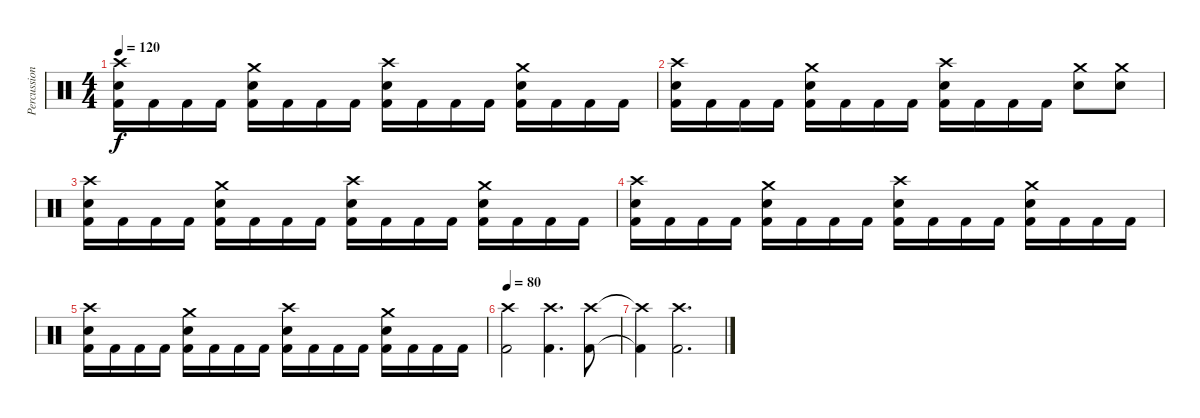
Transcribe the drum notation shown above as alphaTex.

\track ("Percussion" "Percussion") {instrument percussion}
\staff {score}
\articulation defaults
\ts (4 4)
\tempo 120
\clef neutral
\ks c
("Snare (hit) 2" "Kick (hit) 2" "Crash high (hit)").16{dy f} "Kick (hit) 2".16 "Kick (hit) 2".16 "Kick (hit) 2".16 ("Snare (hit) 2" "Kick (hit) 2" "Crash medium (hit)").16 "Kick (hit) 2".16 "Kick (hit) 2".16 "Kick (hit) 2".16 ("Snare (hit) 2" "Kick (hit) 2" "Crash high (hit)").16 "Kick (hit) 2".16 "Kick (hit) 2".16 "Kick (hit) 2".16 ("Snare (hit) 2" "Kick (hit) 2" "Crash medium (hit)").16 "Kick (hit) 2".16 "Kick (hit) 2".16 "Kick (hit) 2".16 |
("Snare (hit) 2" "Kick (hit) 2" "Crash high (hit)").16 "Kick (hit) 2".16 "Kick (hit) 2".16 "Kick (hit) 2".16 ("Snare (hit) 2" "Kick (hit) 2" "Crash medium (hit)").16 "Kick (hit) 2".16 "Kick (hit) 2".16 "Kick (hit) 2".16 ("Snare (hit) 2" "Kick (hit) 2" "Crash high (hit)").16 "Kick (hit) 2".16 "Kick (hit) 2".16 "Kick (hit) 2".16 ("Snare (hit) 2" "Crash medium (hit)").8 ("Snare (hit) 2" "Crash medium (hit)").8 |
("Snare (hit) 2" "Kick (hit) 2" "Crash high (hit)").16 "Kick (hit) 2".16 "Kick (hit) 2".16 "Kick (hit) 2".16 ("Snare (hit) 2" "Kick (hit) 2" "Crash medium (hit)").16 "Kick (hit) 2".16 "Kick (hit) 2".16 "Kick (hit) 2".16 ("Snare (hit) 2" "Kick (hit) 2" "Crash high (hit)").16 "Kick (hit) 2".16 "Kick (hit) 2".16 "Kick (hit) 2".16 ("Snare (hit) 2" "Kick (hit) 2" "Crash medium (hit)").16 "Kick (hit) 2".16 "Kick (hit) 2".16 "Kick (hit) 2".16 |
("Snare (hit) 2" "Kick (hit) 2" "Crash high (hit)").16 "Kick (hit) 2".16 "Kick (hit) 2".16 "Kick (hit) 2".16 ("Snare (hit) 2" "Kick (hit) 2" "Crash medium (hit)").16 "Kick (hit) 2".16 "Kick (hit) 2".16 "Kick (hit) 2".16 ("Snare (hit) 2" "Kick (hit) 2" "Crash high (hit)").16 "Kick (hit) 2".16 "Kick (hit) 2".16 "Kick (hit) 2".16 ("Snare (hit) 2" "Kick (hit) 2" "Crash medium (hit)").16 "Kick (hit) 2".16 "Kick (hit) 2".16 "Kick (hit) 2".16 |
("Snare (hit) 2" "Kick (hit) 2" "Crash high (hit)").16 "Kick (hit) 2".16 "Kick (hit) 2".16 "Kick (hit) 2".16 ("Snare (hit) 2" "Kick (hit) 2" "Crash medium (hit)").16 "Kick (hit) 2".16 "Kick (hit) 2".16 "Kick (hit) 2".16 ("Snare (hit) 2" "Kick (hit) 2" "Crash high (hit)").16 "Kick (hit) 2".16 "Kick (hit) 2".16 "Kick (hit) 2".16 ("Snare (hit) 2" "Kick (hit) 2" "Crash medium (hit)").16 "Kick (hit) 2".16 "Kick (hit) 2".16 "Kick (hit) 2".16 |
\tempo 80
("Kick (hit) 2" "Crash high (hit)").2 ("Kick (hit) 2" "Crash high (hit)").4{d} ("Kick (hit) 2" "Crash high (hit)").8 |
("Kick (hit) 2"{t} "Crash high (hit)"{t}).4 ("Kick (hit) 2" "Crash high (hit)").2{d}
